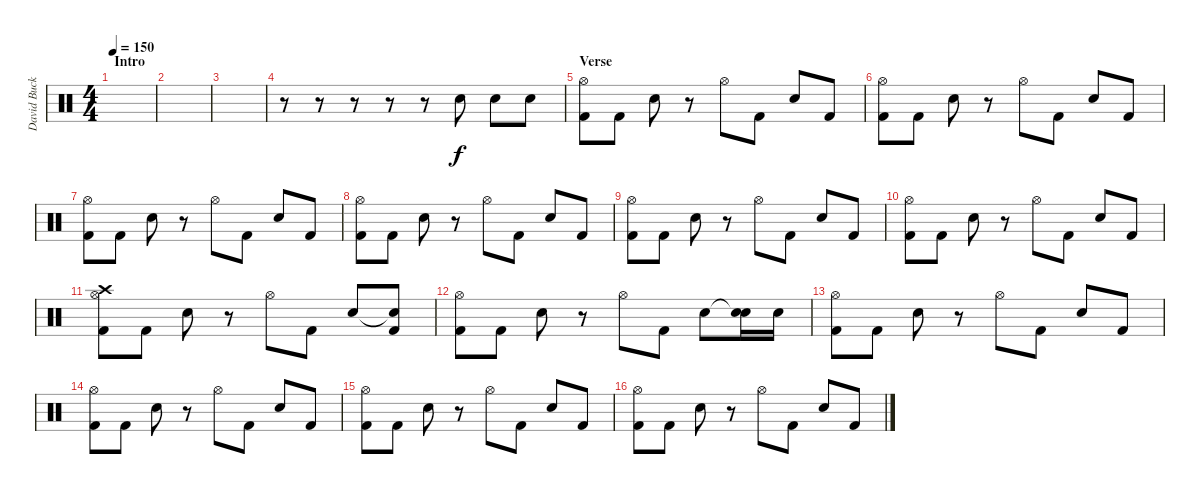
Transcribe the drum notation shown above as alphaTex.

\track ("David Buckner" "David Buck") {instrument percussion}
\staff {score}
\articulation defaults
\ts (4 4)
\section ("" "Intro")
\tempo 150
\clef neutral
\ks c
|
|
|
r.8 r.8 r.8 r.8 r.8 "Snare (hit) 2".8 "Snare (hit) 2".8 "Snare (hit) 2".8 |
\section ("" "Verse")
("Hi-Hat (open)" "Kick (hit) 2").8 "Kick (hit) 2".8 "Snare (hit) 2".8 r.8 "Hi-Hat (open)".8 "Kick (hit) 2".8 "Snare (hit) 2".8 "Kick (hit) 2".8 |
("Hi-Hat (open)" "Kick (hit) 2").8 "Kick (hit) 2".8 "Snare (hit) 2".8 r.8 "Hi-Hat (open)".8 "Kick (hit) 2".8 "Snare (hit) 2".8 "Kick (hit) 2".8 |
("Hi-Hat (open)" "Kick (hit) 2").8 "Kick (hit) 2".8 "Snare (hit) 2".8 r.8 "Hi-Hat (open)".8 "Kick (hit) 2".8 "Snare (hit) 2".8 "Kick (hit) 2".8 |
("Hi-Hat (open)" "Kick (hit) 2").8 "Kick (hit) 2".8 "Snare (hit) 2".8 r.8 "Hi-Hat (open)".8 "Kick (hit) 2".8 "Snare (hit) 2".8 "Kick (hit) 2".8 |
("Hi-Hat (open)" "Kick (hit) 2").8 "Kick (hit) 2".8 "Snare (hit) 2".8 r.8 "Hi-Hat (open)".8 "Kick (hit) 2".8 "Snare (hit) 2".8 "Kick (hit) 2".8 |
("Hi-Hat (open)" "Kick (hit) 2").8 "Kick (hit) 2".8 "Snare (hit) 2".8 r.8 "Hi-Hat (open)".8 "Kick (hit) 2".8 "Snare (hit) 2".8 "Kick (hit) 2".8 |
("Crash high (hit)" "Hi-Hat (open)" "Kick (hit) 2").8 "Kick (hit) 2".8 "Snare (hit) 2".8 r.8 "Hi-Hat (open)".8 "Kick (hit) 2".8 "Snare (hit) 2".8 ("Snare (hit)"{t} "Kick (hit) 2").8 |
("Hi-Hat (open)" "Kick (hit) 2").8 "Kick (hit) 2".8 "Snare (hit) 2".8 r.8 "Hi-Hat (open)".8 "Kick (hit) 2".8 "Snare (hit) 2".8 ("Snare (hit)"{t} "Snare (hit) 2").16 "Snare (hit) 2".16 |
("Hi-Hat (open)" "Kick (hit) 2").8 "Kick (hit) 2".8 "Snare (hit) 2".8 r.8 "Hi-Hat (open)".8 "Kick (hit) 2".8 "Snare (hit) 2".8 "Kick (hit) 2".8 |
("Hi-Hat (open)" "Kick (hit) 2").8 "Kick (hit) 2".8 "Snare (hit) 2".8 r.8 "Hi-Hat (open)".8 "Kick (hit) 2".8 "Snare (hit) 2".8 "Kick (hit) 2".8 |
("Hi-Hat (open)" "Kick (hit) 2").8 "Kick (hit) 2".8 "Snare (hit) 2".8 r.8 "Hi-Hat (open)".8 "Kick (hit) 2".8 "Snare (hit) 2".8 "Kick (hit) 2".8 |
("Hi-Hat (open)" "Kick (hit) 2").8 "Kick (hit) 2".8 "Snare (hit) 2".8 r.8 "Hi-Hat (open)".8 "Kick (hit) 2".8 "Snare (hit) 2".8 "Kick (hit) 2".8
